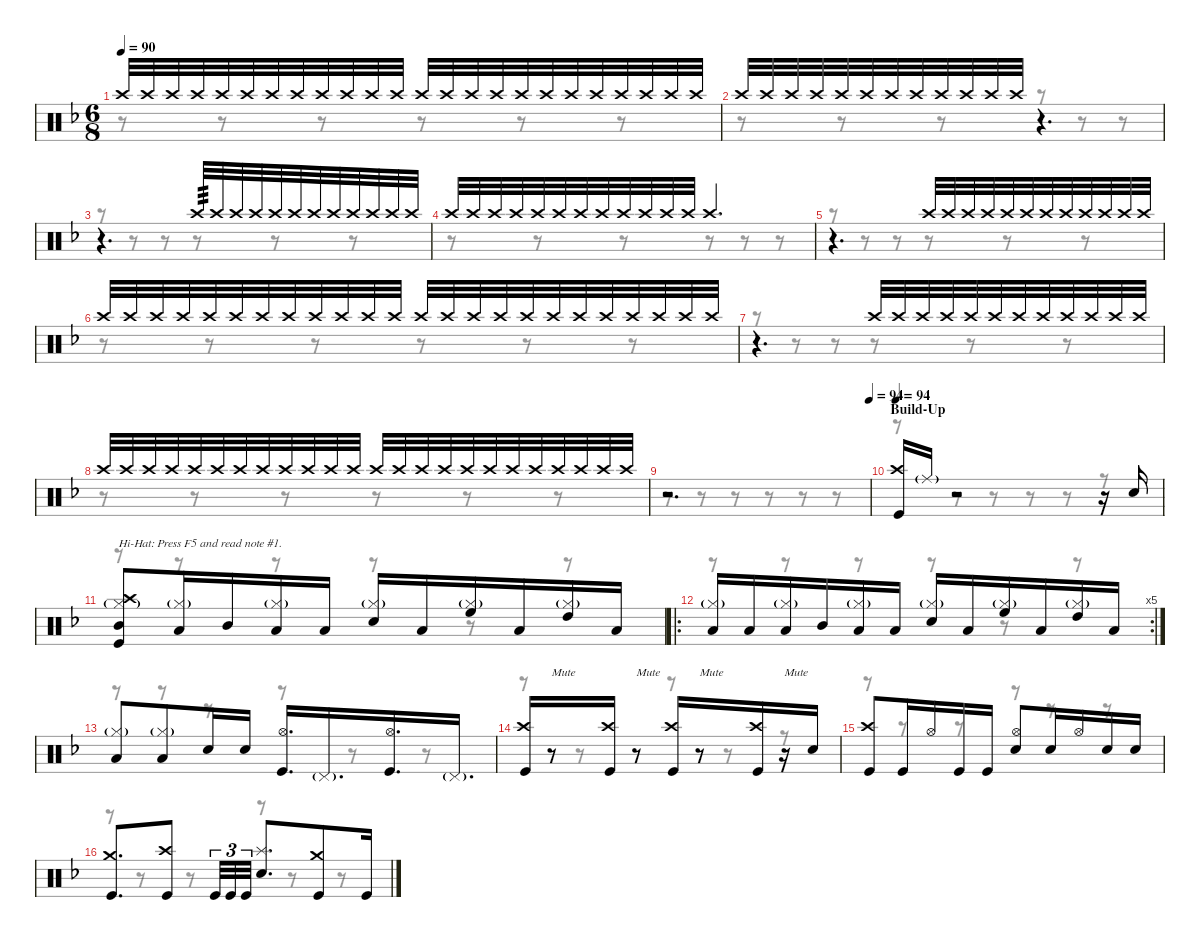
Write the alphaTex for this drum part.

\defaultSystemsLayout 4
\hideDynamics
\bracketExtendMode nobrackets
\singleTrackTrackNamePolicy hidden
\multiTrackTrackNamePolicy hidden
\otherSystemsTrackNameOrientation horizontal
\track ("M. Lopez" "drm.") {instrument percussion}
\staff {score}
\articulation defaults
\voice
\ts (6 8)
\tempo 90
\clef neutral
\ks dminor "Crash high (hit)"{acc forcenatural}.32{dy p beam Up} "Crash high (hit)"{acc forcenatural}.32{beam Up} "Crash high (hit)"{acc forcenatural}.32{beam Up} "Crash high (hit)"{acc forcenatural}.32{beam Up} "Crash high (hit)"{acc forcenatural}.32{beam Up} "Crash high (hit)"{acc forcenatural}.32{beam Up} "Crash high (hit)"{acc forcenatural}.32{beam Up} "Crash high (hit)"{acc forcenatural}.32{beam Up} "Crash high (hit)"{acc forcenatural}.32{beam Up} "Crash high (hit)"{acc forcenatural}.32{beam Up} "Crash high (hit)"{acc forcenatural}.32{beam Up} "Crash high (hit)"{acc forcenatural}.32{beam Up} "Crash high (hit)"{acc forcenatural}.32{beam Up} "Crash high (hit)"{acc forcenatural}.32{beam Up} "Crash high (hit)"{acc forcenatural}.32{beam Up} "Crash high (hit)"{acc forcenatural}.32{beam Up} "Crash high (hit)"{acc forcenatural}.32{beam Up} "Crash high (hit)"{acc forcenatural}.32{beam Up} "Crash high (hit)"{acc forcenatural}.32{beam Up} "Crash high (hit)"{acc forcenatural}.32{beam Up} "Crash high (hit)"{acc forcenatural}.32{beam Up} "Crash high (hit)"{acc forcenatural}.32{beam Up} "Crash high (hit)"{acc forcenatural}.32{beam Up} "Crash high (hit)"{acc forcenatural}.32{beam Up}
|
"Crash high (hit)"{acc forcenatural}.32{beam Up} "Crash high (hit)"{acc forcenatural}.32{beam Up} "Crash high (hit)"{acc forcenatural}.32{beam Up} "Crash high (hit)"{acc forcenatural}.32{beam Up} "Crash high (hit)"{acc forcenatural}.32{beam Up} "Crash high (hit)"{acc forcenatural}.32{beam Up} "Crash high (hit)"{acc forcenatural}.32{beam Up} "Crash high (hit)"{acc forcenatural}.32{beam Up} "Crash high (hit)"{acc forcenatural}.32{beam Up} "Crash high (hit)"{acc forcenatural}.32{beam Up} "Crash high (hit)"{acc forcenatural}.32{beam Up} "Crash high (hit)"{acc forcenatural}.32{beam Up} r.4{d beam Up} |
r.4{d beam Up} "Crash high (hit)"{acc forcenatural}.32{tp 3 beam Up} "Crash high (hit)"{acc forcenatural}.32{beam Up} "Crash high (hit)"{acc forcenatural}.32{beam Up} "Crash high (hit)"{acc forcenatural}.32{dy mp beam Up} "Crash high (hit)"{acc forcenatural}.32{beam Up} "Crash high (hit)"{acc forcenatural}.32{beam Up} "Crash high (hit)"{acc forcenatural}.32{dy mf beam Up} "Crash high (hit)"{acc forcenatural}.32{beam Up} "Crash high (hit)"{acc forcenatural}.32{beam Up} "Crash high (hit)"{acc forcenatural}.32{dy f beam Up} "Crash high (hit)"{acc forcenatural}.32{beam Up} "Crash high (hit)"{acc forcenatural}.32{beam Up} |
"Crash high (hit)"{acc forcenatural}.32{beam Up} "Crash high (hit)"{acc forcenatural}.32{beam Up} "Crash high (hit)"{acc forcenatural}.32{beam Up} "Crash high (hit)"{acc forcenatural}.32{beam Up} "Crash high (hit)"{acc forcenatural}.32{beam Up} "Crash high (hit)"{acc forcenatural}.32{beam Up} "Crash high (hit)"{acc forcenatural}.32{beam Up} "Crash high (hit)"{acc forcenatural}.32{beam Up} "Crash high (hit)"{acc forcenatural}.32{beam Up} "Crash high (hit)"{acc forcenatural}.32{beam Up} "Crash high (hit)"{acc forcenatural}.32{beam Up} "Crash high (hit)"{acc forcenatural}.32{beam Up} "Crash high (hit)"{acc forcenatural}.4{d dy p beam Up} |
r.4{d beam Up} "Crash high (hit)"{acc forcenatural}.32{beam Up} "Crash high (hit)"{acc forcenatural}.32{beam Up} "Crash high (hit)"{acc forcenatural}.32{beam Up} "Crash high (hit)"{acc forcenatural}.32{beam Up} "Crash high (hit)"{acc forcenatural}.32{beam Up} "Crash high (hit)"{acc forcenatural}.32{beam Up} "Crash high (hit)"{acc forcenatural}.32{beam Up} "Crash high (hit)"{acc forcenatural}.32{beam Up} "Crash high (hit)"{acc forcenatural}.32{beam Up} "Crash high (hit)"{acc forcenatural}.32{beam Up} "Crash high (hit)"{acc forcenatural}.32{beam Up} "Crash high (hit)"{acc forcenatural}.32{beam Up} |
"Crash high (hit)"{acc forcenatural}.32{beam Up} "Crash high (hit)"{acc forcenatural}.32{beam Up} "Crash high (hit)"{acc forcenatural}.32{beam Up} "Crash high (hit)"{acc forcenatural}.32{beam Up} "Crash high (hit)"{acc forcenatural}.32{beam Up} "Crash high (hit)"{acc forcenatural}.32{beam Up} "Crash high (hit)"{acc forcenatural}.32{beam Up} "Crash high (hit)"{acc forcenatural}.32{beam Up} "Crash high (hit)"{acc forcenatural}.32{beam Up} "Crash high (hit)"{acc forcenatural}.32{beam Up} "Crash high (hit)"{acc forcenatural}.32{beam Up} "Crash high (hit)"{acc forcenatural}.32{beam Up} "Crash high (hit)"{acc forcenatural}.32{beam Up} "Crash high (hit)"{acc forcenatural}.32{beam Up} "Crash high (hit)"{acc forcenatural}.32{beam Up} "Crash high (hit)"{acc forcenatural}.32{beam Up} "Crash high (hit)"{acc forcenatural}.32{beam Up} "Crash high (hit)"{acc forcenatural}.32{beam Up} "Crash high (hit)"{acc forcenatural}.32{beam Up} "Crash high (hit)"{acc forcenatural}.32{beam Up} "Crash high (hit)"{acc forcenatural}.32{beam Up} "Crash high (hit)"{acc forcenatural}.32{beam Up} "Crash high (hit)"{acc forcenatural}.32{beam Up} "Crash high (hit)"{acc forcenatural}.32{beam Up} |
r.4{d beam Up} "Crash high (hit)"{acc forcenatural}.32{beam Up} "Crash high (hit)"{acc forcenatural}.32{beam Up} "Crash high (hit)"{acc forcenatural}.32{beam Up} "Crash high (hit)"{acc forcenatural}.32{beam Up} "Crash high (hit)"{acc forcenatural}.32{beam Up} "Crash high (hit)"{acc forcenatural}.32{beam Up} "Crash high (hit)"{acc forcenatural}.32{beam Up} "Crash high (hit)"{acc forcenatural}.32{beam Up} "Crash high (hit)"{acc forcenatural}.32{beam Up} "Crash high (hit)"{acc forcenatural}.32{beam Up} "Crash high (hit)"{acc forcenatural}.32{beam Up} "Crash high (hit)"{acc forcenatural}.32{beam Up} |
"Crash high (hit)"{acc forcenatural}.32{beam Up} "Crash high (hit)"{acc forcenatural}.32{beam Up} "Crash high (hit)"{acc forcenatural}.32{beam Up} "Crash high (hit)"{acc forcenatural}.32{beam Up} "Crash high (hit)"{acc forcenatural}.32{beam Up} "Crash high (hit)"{acc forcenatural}.32{beam Up} "Crash high (hit)"{acc forcenatural}.32{beam Up} "Crash high (hit)"{acc forcenatural}.32{beam Up} "Crash high (hit)"{acc forcenatural}.32{beam Up} "Crash high (hit)"{acc forcenatural}.32{beam Up} "Crash high (hit)"{acc forcenatural}.32{beam Up} "Crash high (hit)"{acc forcenatural}.32{beam Up} "Crash high (hit)"{acc forcenatural}.32{beam Up} "Crash high (hit)"{acc forcenatural}.32{beam Up} "Crash high (hit)"{acc forcenatural}.32{beam Up} "Crash high (hit)"{acc forcenatural}.32{beam Up} "Crash high (hit)"{acc forcenatural}.32{beam Up} "Crash high (hit)"{acc forcenatural}.32{beam Up} "Crash high (hit)"{acc forcenatural}.32{beam Up} "Crash high (hit)"{acc forcenatural}.32{beam Up} "Crash high (hit)"{acc forcenatural}.32{beam Up} "Crash high (hit)"{acc forcenatural}.32{beam Up} "Crash high (hit)"{acc forcenatural}.32{beam Up} "Crash high (hit)"{acc forcenatural}.32{beam Up} |
\tempo (94 1)
r.2{d beam Up} |
\section ("" "Build-Up")
\tempo 94
("Crash high (hit)"{acc forcenatural} "Kick (hit)"{acc forcenatural}).16{dy mf beam Up} "Ride (middle)"{g acc forcenatural}.16{dy pp beam Up} r.2{beam Up} r.16{beam Up} "Snare (hit) 2"{acc forcenatural}.16{dy f beam Up} |
("Crash high (hit)"{acc forcenatural} "Hi-Hat (closed)"{g acc forcenatural} "Mid Tom (hit)"{acc forcenatural} "Kick (hit)"{acc forcenatural}).8{txt "Hi-Hat: Press F5 and read note #1." dy mf beam Up} ("Hi-Hat (closed)"{g acc forcenatural} "Low Floor Tom (hit)"{acc forcenatural}).16{beam Up} "Mid Tom (hit)"{acc forcenatural}.16{beam Up} ("Hi-Hat (closed)"{g acc forcenatural} "Low Tom (hit)"{acc forcenatural}).16{beam Up} "Low Floor Tom (hit)"{acc forcenatural}.16{beam Up} ("Hi-Hat (closed)"{g acc forcenatural} "Snare (hit) 2"{acc forcenatural}).16{dy f beam Up} "Low Floor Tom (hit)"{acc forcenatural}.16{dy mf beam Up} ("Hi-Hat (closed)"{g acc forcenatural} "High Floor Tom (hit)"{acc forcenatural}).16{beam Up} "Low Floor Tom (hit)"{acc forcenatural}.16{beam Up} ("Hi-Hat (closed)"{g acc forcenatural} "High Tom (hit)"{acc forcenatural}).16{beam Up} "Low Floor Tom (hit)"{acc forcenatural}.16{beam Up} |
\ro
\rc 5
("Hi-Hat (closed)"{g acc forcenatural} "Low Floor Tom (hit)"{acc forcenatural}).16{beam Up} "Low Tom (hit)"{acc forcenatural}.16{beam Up} ("Hi-Hat (closed)"{g acc forcenatural} "Low Floor Tom (hit)"{acc forcenatural}).16{beam Up} "Mid Tom (hit)"{acc forcenatural}.16{beam Up} ("Hi-Hat (closed)"{g acc forcenatural} "Low Tom (hit)"{acc forcenatural}).16{beam Up} "Low Floor Tom (hit)"{acc forcenatural}.16{beam Up} ("Hi-Hat (closed)"{g acc forcenatural} "Snare (hit) 2"{acc forcenatural}).16{dy f beam Up} "Low Floor Tom (hit)"{acc forcenatural}.16{dy mf beam Up} ("Hi-Hat (closed)"{g acc forcenatural} "High Floor Tom (hit)"{acc forcenatural}).16{beam Up} "Low Floor Tom (hit)"{acc forcenatural}.16{beam Up} ("Hi-Hat (closed)"{g acc forcenatural} "High Tom (hit)"{acc forcenatural}).16{beam Up} "Low Floor Tom (hit)"{acc forcenatural}.16{beam Up} |
("Hi-Hat (closed)"{g acc forcenatural} "Low Floor Tom (hit)"{acc forcenatural}).8{beam Up} ("Hi-Hat (closed)"{g acc forcenatural} "Low Floor Tom (hit)"{acc forcenatural}).8{beam Up} "Snare (hit) 2"{acc forcenatural}.16{dy f beam Up} "Snare (hit) 2"{acc forcenatural}.16{beam Up} ("Hi-Hat (open)"{acc forcenatural} "Kick (hit)"{acc forcenatural}).16{d beam Up} "Pedal Hi-Hat (hit)"{g acc forcenatural}.16{d dy mf beam Up} ("Hi-Hat (open)"{acc forcenatural} "Kick (hit)"{acc forcenatural}).16{d dy f beam Up} "Pedal Hi-Hat (hit)"{g acc forcenatural}.16{d dy mf beam Up} |
("Crash high (hit)"{acc forcenatural} "Kick (hit)"{acc forcenatural}).16{dy f beam Up} r.8{txt "Mute" beam Up} ("Crash high (hit)"{acc forcenatural} "Kick (hit)"{acc forcenatural}).16{beam Up} r.8{txt "Mute" beam Up} ("Crash high (hit)"{acc forcenatural} "Kick (hit)"{acc forcenatural}).16{beam Up} r.8{txt "Mute" beam Up} ("Crash high (hit)"{acc forcenatural} "Kick (hit)"{acc forcenatural}).16{beam Up} r.16{txt "Mute" beam Up} "Snare (hit) 2"{acc forcenatural}.16{dy ff beam Up} |
("Crash high (hit)"{acc forcenatural} "Kick (hit)"{acc forcenatural}).8{dy f beam Up} "Kick (hit)"{acc forcenatural}.16{beam Up} "Hi-Hat (open)"{acc forcenatural}.16{beam Up} "Kick (hit)"{acc forcenatural}.16{beam Up} "Kick (hit)"{acc forcenatural}.16{beam Up} ("Hi-Hat (open)"{acc forcenatural} "Snare (hit) 2"{acc forcenatural}).8{beam Up} "Snare (hit) 2"{acc forcenatural}.16{beam Up} "Hi-Hat (open)"{acc forcenatural}.16{beam Up} "Snare (hit) 2"{acc forcenatural}.16{beam Up} "Snare (hit) 2"{acc forcenatural}.16{beam Up} |
("Crash medium (hit)"{acc forcenatural} "Kick (hit)"{acc forcenatural}).8{d beam Up} ("Crash high (hit)"{acc forcenatural} "Kick (hit)"{acc forcenatural}).8{beam Up} "Kick (hit)"{acc forcenatural}.32{tu (3 2) beam Up} "Kick (hit)"{acc forcenatural}.32{tu (3 2) beam Up} "Kick (hit)"{acc forcenatural}.32{tu (3 2) beam Up} ("Splash (hit)"{acc forcenatural} "Snare (hit) 2"{acc forcenatural}).8{d beam Up} ("Crash medium (hit)"{acc forcenatural} "Kick (hit)"{acc forcenatural}).8{beam Up} "Kick (hit)"{acc forcenatural}.16{beam Up}
\voice
\clef neutral
\ottava regular
\simile none
\ks dminor
r.8{dy mf beam Down} r.8{beam Down} r.8{beam Down} r.8{beam Down} r.8{beam Down} r.8{beam Down} |
r.8{beam Down} r.8{beam Down} r.8{beam Down} r.8{beam Down} r.8{beam Down} r.8{beam Down} |
r.8{beam Down} r.8{beam Down} r.8{beam Down} r.8{beam Down} r.8{beam Down} r.8{beam Down} |
r.8{beam Down} r.8{beam Down} r.8{beam Down} r.8{beam Down} r.8{beam Down} r.8{beam Down} |
r.8{beam Down} r.8{beam Down} r.8{beam Down} r.8{beam Down} r.8{beam Down} r.8{beam Down} |
r.8{beam Down} r.8{beam Down} r.8{beam Down} r.8{beam Down} r.8{beam Down} r.8{beam Down} |
r.8{beam Down} r.8{beam Down} r.8{beam Down} r.8{beam Down} r.8{beam Down} r.8{beam Down} |
r.8{beam Down} r.8{beam Down} r.8{beam Down} r.8{beam Down} r.8{beam Down} r.8{beam Down} |
r.8{beam Down} r.8{beam Down} r.8{beam Down} r.8{beam Down} r.8{beam Down} r.8{beam Down} |
r.8{beam Down} r.8{beam Down} r.8{beam Down} r.8{beam Down} r.8{beam Down} r.8{beam Down} |
r.8{beam Down} r.8{beam Down} r.8{beam Down} r.8{beam Down} r.8{beam Down} r.8{beam Down} |
r.8{beam Down} r.8{beam Down} r.8{beam Down} r.8{beam Down} r.8{beam Down} r.8{beam Down} |
r.8{beam Down} r.8{beam Down} r.8{beam Down} r.8{beam Down} r.8{beam Down} r.8{beam Down} |
r.8{beam Down} r.8{beam Down} r.8{beam Down} r.8{beam Down} r.8{beam Down} r.8{beam Down} |
r.8{beam Down} r.8{beam Down} r.8{beam Down} r.8{beam Down} r.8{beam Down} r.8{beam Down} |
r.8{beam Down} r.8{beam Down} r.8{beam Down} r.8{beam Down} r.8{beam Down} r.8{beam Down}
